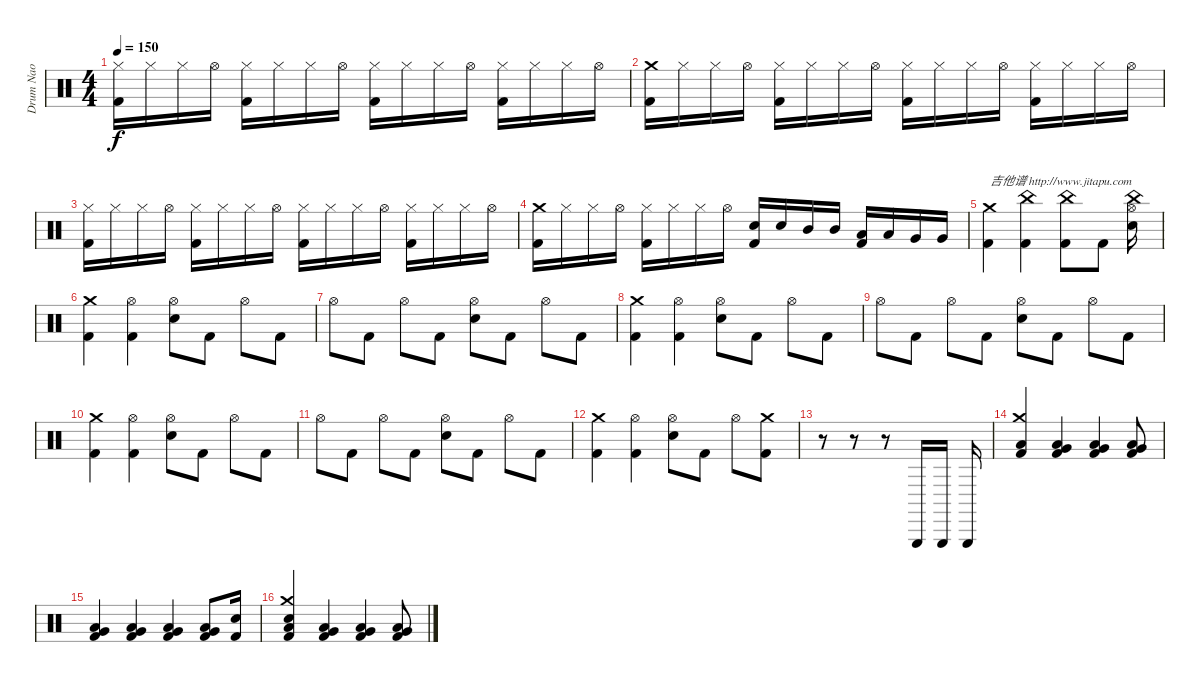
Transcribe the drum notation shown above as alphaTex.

\track ("Drum Nao" "Drum Nao") {instrument percussion}
\staff {score}
\articulation defaults
\ts (4 4)
\tempo 150
\clef neutral
\ks c
("Hi-Hat (closed)" "Kick (hit) 2").16{dy f} "Hi-Hat (closed)".16 "Hi-Hat (closed)".16 "Hi-Hat (open)".16 ("Hi-Hat (closed)" "Kick (hit) 2").16 "Hi-Hat (closed)".16 "Hi-Hat (closed)".16 "Hi-Hat (open)".16 ("Hi-Hat (closed)" "Kick (hit) 2").16 "Hi-Hat (closed)".16 "Hi-Hat (closed)".16 "Hi-Hat (open)".16 ("Hi-Hat (closed)" "Kick (hit) 2").16 "Hi-Hat (closed)".16 "Hi-Hat (closed)".16 "Hi-Hat (open)".16 |
("Crash medium (hit)" "Kick (hit) 2").16 "Hi-Hat (closed)".16 "Hi-Hat (closed)".16 "Hi-Hat (open)".16 ("Hi-Hat (closed)" "Kick (hit) 2").16 "Hi-Hat (closed)".16 "Hi-Hat (closed)".16 "Hi-Hat (open)".16 ("Hi-Hat (closed)" "Kick (hit) 2").16 "Hi-Hat (closed)".16 "Hi-Hat (closed)".16 "Hi-Hat (open)".16 ("Hi-Hat (closed)" "Kick (hit) 2").16 "Hi-Hat (closed)".16 "Hi-Hat (closed)".16 "Hi-Hat (open)".16 |
("Hi-Hat (closed)" "Kick (hit) 2").16 "Hi-Hat (closed)".16 "Hi-Hat (closed)".16 "Hi-Hat (open)".16 ("Hi-Hat (closed)" "Kick (hit) 2").16 "Hi-Hat (closed)".16 "Hi-Hat (closed)".16 "Hi-Hat (open)".16 ("Hi-Hat (closed)" "Kick (hit) 2").16 "Hi-Hat (closed)".16 "Hi-Hat (closed)".16 "Hi-Hat (open)".16 ("Hi-Hat (closed)" "Kick (hit) 2").16 "Hi-Hat (closed)".16 "Hi-Hat (closed)".16 "Hi-Hat (open)".16 |
("Crash medium (hit)" "Kick (hit) 2").16 "Hi-Hat (closed)".16 "Hi-Hat (closed)".16 "Hi-Hat (open)".16 ("Hi-Hat (closed)" "Kick (hit) 2").16 "Hi-Hat (closed)".16 "Hi-Hat (closed)".16 "Hi-Hat (open)".16 ("Electric Snare (hit)" "Kick (hit) 2").16 "Electric Snare (hit)".16 "Mid Tom (hit)".16 "Mid Tom (hit)".16 ("Low Tom (hit)" "Kick (hit) 2").16 "Low Tom (hit)".16 "Very Low Tom (hit)".16 "Very Low Tom (hit)".16 |
("Crash medium (hit)" "Kick (hit) 2").4{txt "吉他谱 http://www.jitapu.com"} ("China (hit)" "Kick (hit) 2").4 ("China (hit)" "Kick (hit) 2").8 "Kick (hit) 2".8 ("China (hit)" "Electric Snare (hit)" "Hi-Hat (open)").16 |
("Crash medium (hit)" "Kick (hit) 2").4 ("Hi-Hat (open)" "Kick (hit) 2").4 ("Electric Snare (hit)" "Hi-Hat (open)").8 "Kick (hit) 2".8 "Hi-Hat (open)".8 "Kick (hit) 2".8 |
"Hi-Hat (open)".8 "Kick (hit) 2".8 "Hi-Hat (open)".8 "Kick (hit) 2".8 ("Electric Snare (hit)" "Hi-Hat (open)").8 "Kick (hit) 2".8 "Hi-Hat (open)".8 "Kick (hit) 2".8 |
("Crash medium (hit)" "Kick (hit) 2").4 ("Hi-Hat (open)" "Kick (hit) 2").4 ("Electric Snare (hit)" "Hi-Hat (open)").8 "Kick (hit) 2".8 "Hi-Hat (open)".8 "Kick (hit) 2".8 |
"Hi-Hat (open)".8 "Kick (hit) 2".8 "Hi-Hat (open)".8 "Kick (hit) 2".8 ("Electric Snare (hit)" "Hi-Hat (open)").8 "Kick (hit) 2".8 "Hi-Hat (open)".8 "Kick (hit) 2".8 |
("Crash medium (hit)" "Kick (hit) 2").4 ("Hi-Hat (open)" "Kick (hit) 2").4 ("Electric Snare (hit)" "Hi-Hat (open)").8 "Kick (hit) 2".8 "Hi-Hat (open)".8 "Kick (hit) 2".8 |
"Hi-Hat (open)".8 "Kick (hit) 2".8 "Hi-Hat (open)".8 "Kick (hit) 2".8 ("Electric Snare (hit)" "Hi-Hat (open)").8 "Kick (hit) 2".8 "Hi-Hat (open)".8 "Kick (hit) 2".8 |
("Crash medium (hit)" "Kick (hit) 2").4 ("Hi-Hat (open)" "Kick (hit) 2").4 ("Electric Snare (hit)" "Hi-Hat (open)").8 "Kick (hit) 2".8 "Hi-Hat (open)".8 ("Crash medium (hit)" "Kick (hit) 2").8 |
r.8 r.8 r.8 "Triangle (hit)".16 "Triangle (hit)".16 "Triangle (hit)".16 |
("Crash medium (hit)" "Low Tom (hit)" "Kick (hit) 2").4 ("Very Low Tom (hit)" "Low Tom (hit)" "Kick (hit) 2").4 ("Very Low Tom (hit)" "Low Tom (hit)" "Kick (hit) 2").4 ("Very Low Tom (hit)" "Low Tom (hit)" "Kick (hit) 2").8 |
("Very Low Tom (hit)" "Low Tom (hit)" "Kick (hit) 2").4 ("Very Low Tom (hit)" "Low Tom (hit)" "Kick (hit) 2").4 ("Very Low Tom (hit)" "Low Tom (hit)" "Kick (hit) 2").4 ("Very Low Tom (hit)" "Low Tom (hit)" "Kick (hit) 2").8 ("Electric Snare (hit)" "Kick (hit) 2").16 |
("Crash medium (hit)" "Electric Snare (hit)" "Low Tom (hit)" "Kick (hit) 2").4 ("Very Low Tom (hit)" "Low Tom (hit)" "Kick (hit) 2").4 ("Very Low Tom (hit)" "Low Tom (hit)" "Kick (hit) 2").4 ("Very Low Tom (hit)" "Low Tom (hit)" "Kick (hit) 2").8
